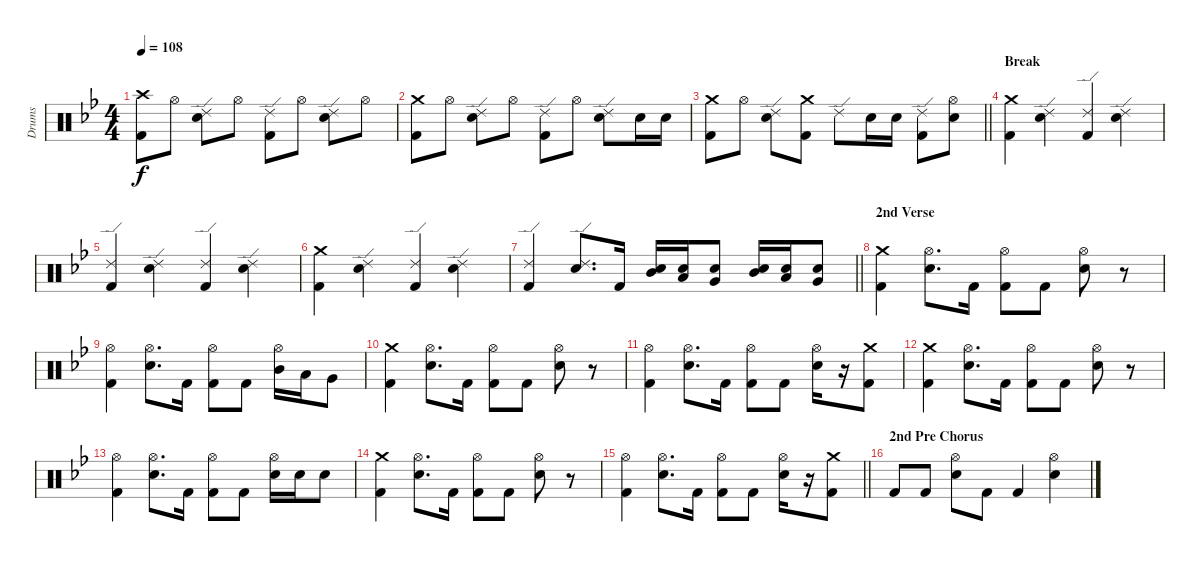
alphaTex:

\track ("Drums" "Drums") {instrument percussion}
\staff {score}
\articulation defaults
\ts (4 4)
\tempo 108
\clef neutral
\ks gminor
("Crash high (hit)" "Kick (hit) 2").8{dy f} "Hi-Hat (open)".8 ("Ride (edge) 2" "Snare (hit) 2").8 "Hi-Hat (open)".8 ("Ride (edge) 2" "Kick (hit) 2").8 "Hi-Hat (open)".8 ("Ride (edge) 2" "Snare (hit) 2").8 "Hi-Hat (open)".8 |
("Crash medium (hit)" "Kick (hit) 2").8 "Hi-Hat (open)".8 ("Ride (edge) 2" "Snare (hit) 2").8 "Hi-Hat (open)".8 ("Ride (edge) 2" "Kick (hit) 2").8 "Hi-Hat (open)".8 ("Ride (edge) 2" "Snare (hit) 2").8 "Snare (hit) 2".16 "Snare (hit) 2".16 |
\barLineRight lightlight
("Crash medium (hit)" "Kick (hit) 2").8 "Hi-Hat (open)".8 ("Ride (edge) 2" "Snare (hit) 2").8 ("Crash medium (hit)" "Kick (hit) 2").8 "Ride (edge) 2".8 "Snare (hit) 2".16 "Snare (hit) 2".16 ("Ride (edge) 2" "Kick (hit) 2").8 ("Hi-Hat (open)" "Snare (hit) 2").8 |
\section ("" "Break")
("Crash medium (hit)" "Kick (hit) 2").4 ("Ride (edge) 2" "Snare (hit) 2").4 ("Ride (edge) 2" "Kick (hit) 2").4 ("Ride (edge) 2" "Snare (hit) 2").4 |
("Ride (edge) 2" "Kick (hit) 2").4 ("Ride (edge) 2" "Snare (hit) 2").4 ("Ride (edge) 2" "Kick (hit) 2").4 ("Ride (edge) 2" "Snare (hit) 2").4 |
("Crash medium (hit)" "Kick (hit) 2").4 ("Ride (edge) 2" "Snare (hit) 2").4 ("Ride (edge) 2" "Kick (hit) 2").4 ("Ride (edge) 2" "Snare (hit) 2").4 |
\barLineRight lightlight
("Ride (edge) 2" "Kick (hit) 2").4 ("Ride (edge) 2" "Snare (hit) 2").8{d} "Kick (hit) 2".16 ("Snare (hit) 2" "Mid Tom (hit)").16 ("Snare (hit) 2" "Low Tom (hit)").16 ("Snare (hit) 2" "Very Low Tom (hit)").8 ("Snare (hit) 2" "Mid Tom (hit)").16 ("Snare (hit) 2" "Low Tom (hit)").16 ("Snare (hit) 2" "Very Low Tom (hit)").8 |
\section ("" "2nd Verse")
("Crash medium (hit)" "Kick (hit) 2").4 ("Hi-Hat (open)" "Snare (hit) 2").8{d} "Kick (hit) 2".16 ("Hi-Hat (open)" "Kick (hit) 2").8 "Kick (hit) 2".8 ("Hi-Hat (open)" "Snare (hit) 2").8 r.8 |
("Hi-Hat (open)" "Kick (hit) 2").4 ("Hi-Hat (open)" "Snare (hit) 2").8{d} "Kick (hit) 2".16 ("Hi-Hat (open)" "Kick (hit) 2").8 "Kick (hit) 2".8 ("Hi-Hat (open)" "Mid Tom (hit)").16 "Low Tom (hit)".16 "Very Low Tom (hit)".8 |
("Crash medium (hit)" "Kick (hit) 2").4 ("Hi-Hat (open)" "Snare (hit) 2").8{d} "Kick (hit) 2".16 ("Hi-Hat (open)" "Kick (hit) 2").8 "Kick (hit) 2".8 ("Hi-Hat (open)" "Snare (hit) 2").8 r.8 |
("Hi-Hat (open)" "Kick (hit) 2").4 ("Hi-Hat (open)" "Snare (hit) 2").8{d} "Kick (hit) 2".16 ("Hi-Hat (open)" "Kick (hit) 2").8 "Kick (hit) 2".8 ("Hi-Hat (open)" "Snare (hit) 2").16 r.16 ("Crash medium (hit)" "Kick (hit) 2").8 |
("Crash medium (hit)" "Kick (hit) 2").4 ("Hi-Hat (open)" "Snare (hit) 2").8{d} "Kick (hit) 2".16 ("Hi-Hat (open)" "Kick (hit) 2").8 "Kick (hit) 2".8 ("Hi-Hat (open)" "Snare (hit) 2").8 r.8 |
("Hi-Hat (open)" "Kick (hit) 2").4 ("Hi-Hat (open)" "Snare (hit) 2").8{d} "Kick (hit) 2".16 ("Hi-Hat (open)" "Kick (hit) 2").8 "Kick (hit) 2".8 ("Hi-Hat (open)" "Snare (hit) 2").16 "Snare (hit) 2".16 "Snare (hit) 2".8 |
("Crash medium (hit)" "Kick (hit) 2").4 ("Hi-Hat (open)" "Snare (hit) 2").8{d} "Kick (hit) 2".16 ("Hi-Hat (open)" "Kick (hit) 2").8 "Kick (hit) 2".8 ("Hi-Hat (open)" "Snare (hit) 2").8 r.8 |
\barLineRight lightlight
("Hi-Hat (open)" "Kick (hit) 2").4 ("Hi-Hat (open)" "Snare (hit) 2").8{d} "Kick (hit) 2".16 ("Hi-Hat (open)" "Kick (hit) 2").8 "Kick (hit) 2".8 ("Hi-Hat (open)" "Snare (hit) 2").16 r.16 ("Crash medium (hit)" "Kick (hit) 2").8 |
\section ("" "2nd Pre Chorus")
"Kick (hit) 2".8 "Kick (hit) 2".8 ("Hi-Hat (open)" "Snare (hit) 2").8 "Kick (hit) 2".8 "Kick (hit) 2".4 ("Hi-Hat (open)" "Snare (hit) 2").4
